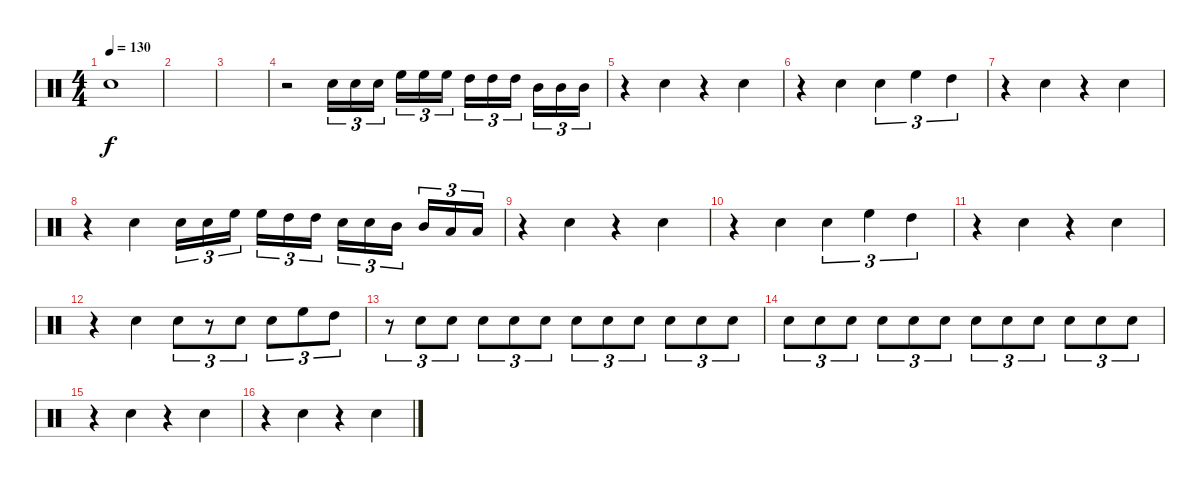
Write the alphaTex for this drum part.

\track "" {instrument percussion}
\staff {score}
\articulation defaults
\ts (4 4)
\tempo 130
\clef neutral
\ks c "Electric Snare (hit)".1{dy f}
|
|
|
r.2 "Electric Snare (hit)".16{tu (3 2)} "Electric Snare (hit)".16{tu (3 2)} "Electric Snare (hit)".16{tu (3 2)} "High Floor Tom (hit)".16{tu (3 2)} "High Floor Tom (hit)".16{tu (3 2)} "High Floor Tom (hit)".16{tu (3 2)} "High Tom (hit)".16{tu (3 2)} "High Tom (hit)".16{tu (3 2)} "High Tom (hit)".16{tu (3 2)} "Mid Tom (hit)".16{tu (3 2)} "Mid Tom (hit)".16{tu (3 2)} "Mid Tom (hit)".16{tu (3 2)} |
r.4 "Electric Snare (hit)".4 r.4 "Electric Snare (hit)".4 |
r.4 "Electric Snare (hit)".4 "Electric Snare (hit)".4{tu (3 2)} "High Floor Tom (hit)".4{tu (3 2)} "High Tom (hit)".4{tu (3 2)} |
r.4 "Electric Snare (hit)".4 r.4 "Electric Snare (hit)".4 |
r.4 "Electric Snare (hit)".4 "Electric Snare (hit)".16{tu (3 2)} "Electric Snare (hit)".16{tu (3 2)} "High Floor Tom (hit)".16{tu (3 2)} "High Floor Tom (hit)".16{tu (3 2)} "High Tom (hit)".16{tu (3 2)} "High Tom (hit)".16{tu (3 2)} "Electric Snare (hit)".16{tu (3 2)} "Electric Snare (hit)".16{tu (3 2)} "Mid Tom (hit)".16{tu (3 2)} "Mid Tom (hit)".16{tu (3 2)} "Low Tom (hit)".16{tu (3 2)} "Low Tom (hit)".16{tu (3 2)} |
r.4 "Electric Snare (hit)".4 r.4 "Electric Snare (hit)".4 |
r.4 "Electric Snare (hit)".4 "Electric Snare (hit)".4{tu (3 2)} "High Floor Tom (hit)".4{tu (3 2)} "High Tom (hit)".4{tu (3 2)} |
r.4 "Electric Snare (hit)".4 r.4 "Electric Snare (hit)".4 |
r.4 "Electric Snare (hit)".4 "Electric Snare (hit)".8{tu (3 2)} r.8{tu (3 2)} "Electric Snare (hit)".8{tu (3 2)} "Electric Snare (hit)".8{tu (3 2)} "High Floor Tom (hit)".8{tu (3 2)} "High Tom (hit)".8{tu (3 2)} |
r.8{tu (3 2)} "Electric Snare (hit)".8{tu (3 2)} "Electric Snare (hit)".8{tu (3 2)} "Electric Snare (hit)".8{tu (3 2)} "Electric Snare (hit)".8{tu (3 2)} "Electric Snare (hit)".8{tu (3 2)} "Electric Snare (hit)".8{tu (3 2)} "Electric Snare (hit)".8{tu (3 2)} "Electric Snare (hit)".8{tu (3 2)} "Electric Snare (hit)".8{tu (3 2)} "Electric Snare (hit)".8{tu (3 2)} "Electric Snare (hit)".8{tu (3 2)} |
"Electric Snare (hit)".8{tu (3 2)} "Electric Snare (hit)".8{tu (3 2)} "Electric Snare (hit)".8{tu (3 2)} "Electric Snare (hit)".8{tu (3 2)} "Electric Snare (hit)".8{tu (3 2)} "Electric Snare (hit)".8{tu (3 2)} "Electric Snare (hit)".8{tu (3 2)} "Electric Snare (hit)".8{tu (3 2)} "Electric Snare (hit)".8{tu (3 2)} "Electric Snare (hit)".8{tu (3 2)} "Electric Snare (hit)".8{tu (3 2)} "Electric Snare (hit)".8{tu (3 2)} |
r.4 "Electric Snare (hit)".4 r.4 "Electric Snare (hit)".4 |
r.4 "Electric Snare (hit)".4 r.4 "Electric Snare (hit)".4
